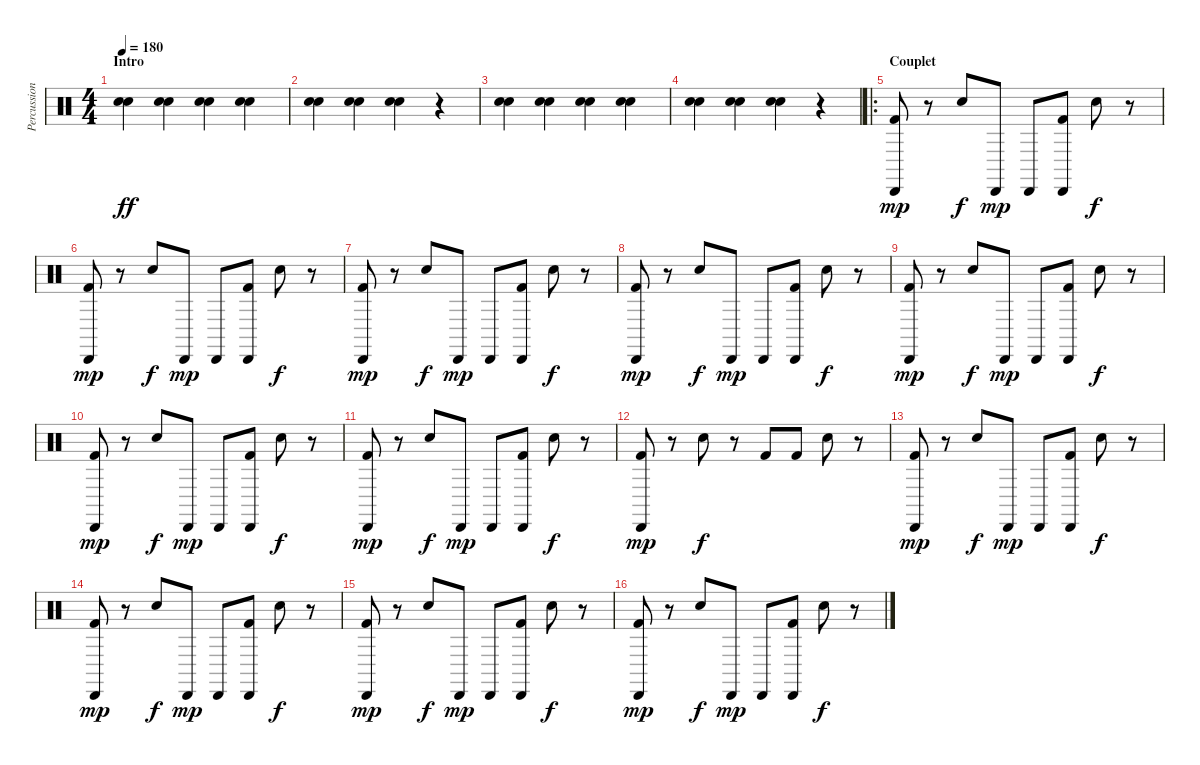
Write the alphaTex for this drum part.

\track ("Percussions" "Percussion") {instrument percussion}
\staff {score}
\articulation defaults
\ts (4 4)
\section ("" "Intro")
\tempo 180
\clef neutral
\ks c
("Electric Snare (hit)" "Electric Snare (hit)").4{dy ff} ("Electric Snare (hit)" "Electric Snare (hit)").4 ("Electric Snare (hit)" "Electric Snare (hit)").4 ("Electric Snare (hit)" "Electric Snare (hit)").4 |
("Electric Snare (hit)" "Electric Snare (hit)").4 ("Electric Snare (hit)" "Electric Snare (hit)").4 ("Electric Snare (hit)" "Electric Snare (hit)").4 r.4 |
("Electric Snare (hit)" "Electric Snare (hit)").4 ("Electric Snare (hit)" "Electric Snare (hit)").4 ("Electric Snare (hit)" "Electric Snare (hit)").4 ("Electric Snare (hit)" "Electric Snare (hit)").4 |
("Electric Snare (hit)" "Electric Snare (hit)").4 ("Electric Snare (hit)" "Electric Snare (hit)").4 ("Electric Snare (hit)" "Electric Snare (hit)").4 r.4 |
\ro
\section ("" "Couplet")
("Cabasa (hit)" "Kick (hit) 2").8{dy mp} r.8 "Electric Snare (hit)".8{dy f} "Cabasa (hit)".8{dy mp} "Cabasa (hit)".8 ("Cabasa (hit)" "Kick (hit) 2").8 "Electric Snare (hit)".8{dy f} r.8 |
("Cabasa (hit)" "Kick (hit) 2").8{dy mp} r.8 "Electric Snare (hit)".8{dy f} "Cabasa (hit)".8{dy mp} "Cabasa (hit)".8 ("Cabasa (hit)" "Kick (hit) 2").8 "Electric Snare (hit)".8{dy f} r.8 |
("Cabasa (hit)" "Kick (hit) 2").8{dy mp} r.8 "Electric Snare (hit)".8{dy f} "Cabasa (hit)".8{dy mp} "Cabasa (hit)".8 ("Cabasa (hit)" "Kick (hit) 2").8 "Electric Snare (hit)".8{dy f} r.8 |
("Cabasa (hit)" "Kick (hit) 2").8{dy mp} r.8 "Electric Snare (hit)".8{dy f} "Cabasa (hit)".8{dy mp} "Cabasa (hit)".8 ("Cabasa (hit)" "Kick (hit) 2").8 "Electric Snare (hit)".8{dy f} r.8 |
("Cabasa (hit)" "Kick (hit) 2").8{dy mp} r.8 "Electric Snare (hit)".8{dy f} "Cabasa (hit)".8{dy mp} "Cabasa (hit)".8 ("Cabasa (hit)" "Kick (hit) 2").8 "Electric Snare (hit)".8{dy f} r.8 |
("Cabasa (hit)" "Kick (hit) 2").8{dy mp} r.8 "Electric Snare (hit)".8{dy f} "Cabasa (hit)".8{dy mp} "Cabasa (hit)".8 ("Cabasa (hit)" "Kick (hit) 2").8 "Electric Snare (hit)".8{dy f} r.8 |
("Cabasa (hit)" "Kick (hit) 2").8{dy mp} r.8 "Electric Snare (hit)".8{dy f} "Cabasa (hit)".8{dy mp} "Cabasa (hit)".8 ("Cabasa (hit)" "Kick (hit) 2").8 "Electric Snare (hit)".8{dy f} r.8 |
("Cabasa (hit)" "Kick (hit) 2").8{dy mp} r.8 "Electric Snare (hit)".8{dy f} r.8 "Kick (hit) 2".8 "Kick (hit) 2".8 "Electric Snare (hit)".8 r.8 |
("Cabasa (hit)" "Kick (hit) 2").8{dy mp} r.8 "Electric Snare (hit)".8{dy f} "Cabasa (hit)".8{dy mp} "Cabasa (hit)".8 ("Cabasa (hit)" "Kick (hit) 2").8 "Electric Snare (hit)".8{dy f} r.8 |
("Cabasa (hit)" "Kick (hit) 2").8{dy mp} r.8 "Electric Snare (hit)".8{dy f} "Cabasa (hit)".8{dy mp} "Cabasa (hit)".8 ("Cabasa (hit)" "Kick (hit) 2").8 "Electric Snare (hit)".8{dy f} r.8 |
("Cabasa (hit)" "Kick (hit) 2").8{dy mp} r.8 "Electric Snare (hit)".8{dy f} "Cabasa (hit)".8{dy mp} "Cabasa (hit)".8 ("Cabasa (hit)" "Kick (hit) 2").8 "Electric Snare (hit)".8{dy f} r.8 |
("Cabasa (hit)" "Kick (hit) 2").8{dy mp} r.8 "Electric Snare (hit)".8{dy f} "Cabasa (hit)".8{dy mp} "Cabasa (hit)".8 ("Cabasa (hit)" "Kick (hit) 2").8 "Electric Snare (hit)".8{dy f} r.8
